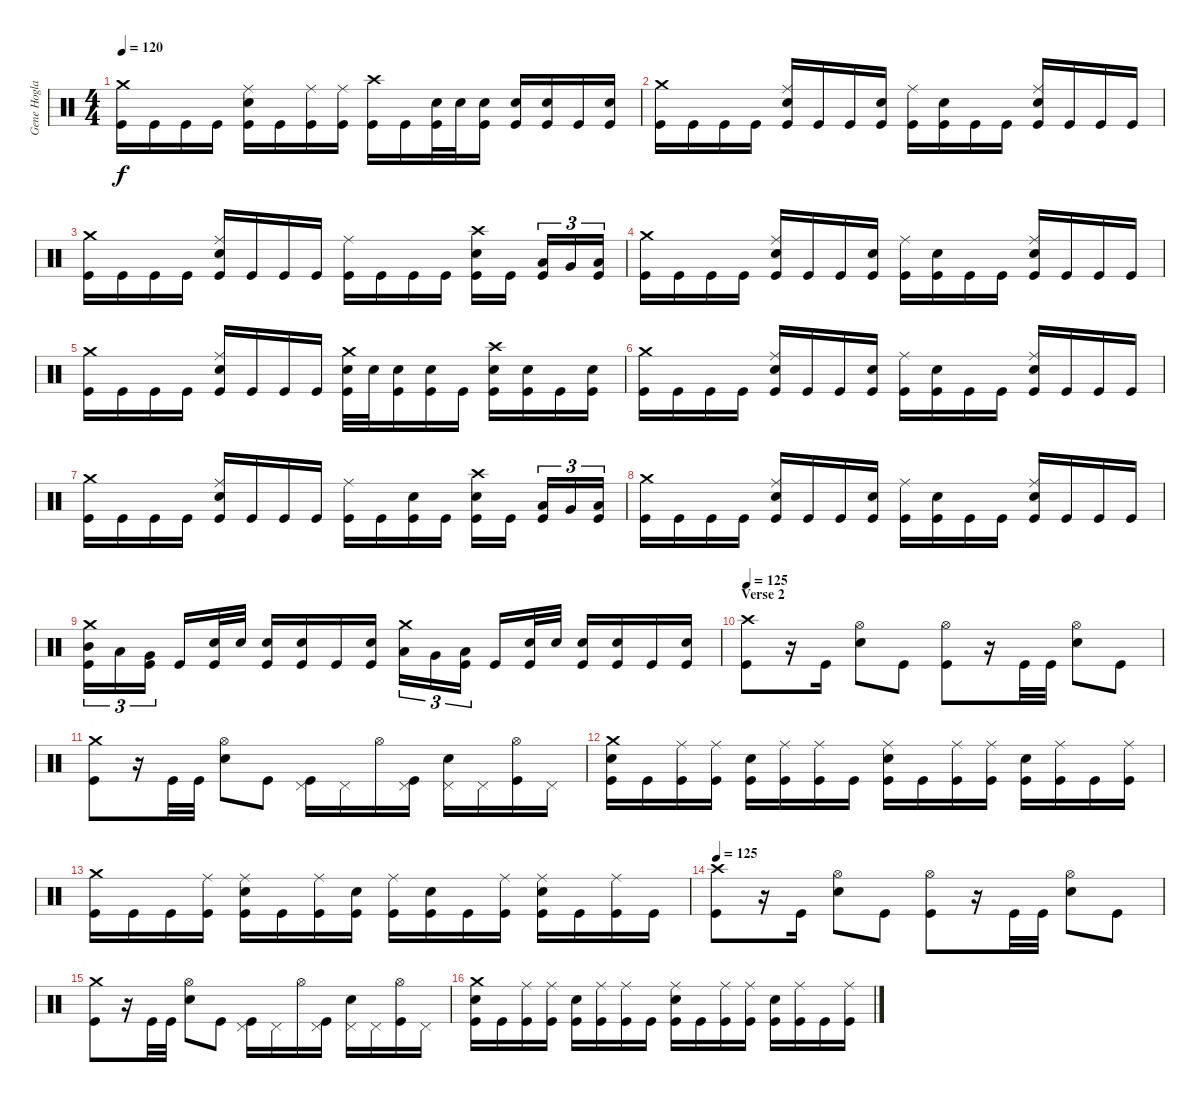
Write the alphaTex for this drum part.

\track ("Gene Hoglan" "Gene Hogla") {instrument percussion}
\staff {score}
\articulation defaults
\ts (4 4)
\tempo 120
\clef neutral
\ks c
("Crash medium (hit)" "Kick (hit)").16{dy f} "Kick (hit)".16 "Kick (hit)".16 "Kick (hit)".16 ("Ride (middle)" "Electric Snare (hit)" "Kick (hit)").16 "Kick (hit)".16 ("Ride (middle)" "Kick (hit)").16 ("Ride (middle)" "Kick (hit)").16 ("Crash high (hit)" "Kick (hit)").16 "Kick (hit)".16 ("Electric Snare (hit)" "Kick (hit)").32 "Electric Snare (hit)".32 ("Electric Snare (hit)" "Kick (hit)").16 ("Electric Snare (hit)" "Kick (hit)").16 ("Electric Snare (hit)" "Kick (hit)").16 "Kick (hit)".16 ("Electric Snare (hit)" "Kick (hit)").16 |
("Crash medium (hit)" "Kick (hit)").16 "Kick (hit)".16 "Kick (hit)".16 "Kick (hit)".16 ("Ride (middle)" "Electric Snare (hit)" "Kick (hit)").16 "Kick (hit)".16 "Kick (hit)".16 ("Electric Snare (hit)" "Kick (hit)").16 ("Ride (middle)" "Kick (hit)").16 ("Electric Snare (hit)" "Kick (hit)").16 "Kick (hit)".16 "Kick (hit)".16 ("Ride (middle)" "Electric Snare (hit)" "Kick (hit)").16 "Kick (hit)".16 "Kick (hit)".16 "Kick (hit)".16 |
("Crash medium (hit)" "Kick (hit)").16 "Kick (hit)".16 "Kick (hit)".16 "Kick (hit)".16 ("Ride (middle)" "Electric Snare (hit)" "Kick (hit)").16 "Kick (hit)".16 "Kick (hit)".16 "Kick (hit)".16 ("Ride (middle)" "Kick (hit)").16 "Kick (hit)".16 "Kick (hit)".16 "Kick (hit)".16 ("Crash high (hit)" "Electric Snare (hit)" "Kick (hit)").16 "Kick (hit)".16 ("Low Tom (hit)" "Kick (hit)").16{tu (3 2)} "Very Low Tom (hit)".16{tu (3 2)} ("Low Floor Tom (hit)" "Kick (hit)").16{tu (3 2)} |
("Crash medium (hit)" "Kick (hit)").16 "Kick (hit)".16 "Kick (hit)".16 "Kick (hit)".16 ("Ride (middle)" "Electric Snare (hit)" "Kick (hit)").16 "Kick (hit)".16 "Kick (hit)".16 ("Electric Snare (hit)" "Kick (hit)").16 ("Ride (middle)" "Kick (hit)").16 ("Electric Snare (hit)" "Kick (hit)").16 "Kick (hit)".16 "Kick (hit)".16 ("Ride (middle)" "Electric Snare (hit)" "Kick (hit)").16 "Kick (hit)".16 "Kick (hit)".16 "Kick (hit)".16 |
("Crash medium (hit)" "Kick (hit)").16 "Kick (hit)".16 "Kick (hit)".16 "Kick (hit)".16 ("Ride (middle)" "Electric Snare (hit)" "Kick (hit)").16 "Kick (hit)".16 "Kick (hit)".16 "Kick (hit)".16 ("Crash medium (hit)" "Electric Snare (hit)" "Kick (hit)").32 "Electric Snare (hit)".32 ("Electric Snare (hit)" "Kick (hit)").16 ("Electric Snare (hit)" "Kick (hit)").16 "Kick (hit)".16 ("Crash high (hit)" "Electric Snare (hit)" "Kick (hit)").16 ("Electric Snare (hit)" "Kick (hit)").16 "Kick (hit)".16 ("Electric Snare (hit)" "Kick (hit)").16 |
("Crash medium (hit)" "Kick (hit)").16 "Kick (hit)".16 "Kick (hit)".16 "Kick (hit)".16 ("Ride (middle)" "Electric Snare (hit)" "Kick (hit)").16 "Kick (hit)".16 "Kick (hit)".16 ("Electric Snare (hit)" "Kick (hit)").16 ("Ride (middle)" "Kick (hit)").16 ("Electric Snare (hit)" "Kick (hit)").16 "Kick (hit)".16 "Kick (hit)".16 ("Ride (middle)" "Electric Snare (hit)" "Kick (hit)").16 "Kick (hit)".16 "Kick (hit)".16 "Kick (hit)".16 |
("Crash medium (hit)" "Kick (hit)").16 "Kick (hit)".16 "Kick (hit)".16 "Kick (hit)".16 ("Ride (middle)" "Electric Snare (hit)" "Kick (hit)").16 "Kick (hit)".16 "Kick (hit)".16 "Kick (hit)".16 ("Ride (middle)" "Kick (hit)").16 "Kick (hit)".16 ("Electric Snare (hit)" "Kick (hit)").16 "Kick (hit)".16 ("Crash high (hit)" "Electric Snare (hit)" "Kick (hit)").16 "Kick (hit)".16 ("Low Tom (hit)" "Kick (hit)").16{tu (3 2)} "Very Low Tom (hit)".16{tu (3 2)} ("Low Floor Tom (hit)" "Kick (hit)").16{tu (3 2)} |
("Crash medium (hit)" "Kick (hit)").16 "Kick (hit)".16 "Kick (hit)".16 "Kick (hit)".16 ("Ride (middle)" "Electric Snare (hit)" "Kick (hit)").16 "Kick (hit)".16 "Kick (hit)".16 ("Electric Snare (hit)" "Kick (hit)").16 ("Ride (middle)" "Kick (hit)").16 ("Electric Snare (hit)" "Kick (hit)").16 "Kick (hit)".16 "Kick (hit)".16 ("Ride (middle)" "Electric Snare (hit)" "Kick (hit)").16 "Kick (hit)".16 "Kick (hit)".16 "Kick (hit)".16 |
("Crash medium (hit)" "Mid Tom (hit)" "Kick (hit)").16{tu (3 2)} "Low Tom (hit)".16{tu (3 2)} ("Very Low Tom (hit)" "Kick (hit)").16{tu (3 2)} "Kick (hit)".16 ("Electric Snare (hit)" "Kick (hit)").32 "Electric Snare (hit)".32 ("Electric Snare (hit)" "Kick (hit)").16 ("Electric Snare (hit)" "Kick (hit)").16 "Kick (hit)".16 ("Electric Snare (hit)" "Kick (hit)").16 ("Crash medium (hit)" "Low Tom (hit)").16{tu (3 2)} "Very Low Tom (hit)".16{tu (3 2)} ("Low Floor Tom (hit)" "Kick (hit)").16{tu (3 2)} "Kick (hit)".16 ("Electric Snare (hit)" "Kick (hit)").32 "Electric Snare (hit)".32 ("Electric Snare (hit)" "Kick (hit)").16 ("Electric Snare (hit)" "Kick (hit)").16 "Kick (hit)".16 ("Electric Snare (hit)" "Kick (hit)").16 |
\section ("" "Verse 2")
\tempo 125
("Crash high (hit)" "Kick (hit)").8 r.16 "Kick (hit)".16 ("Hi-Hat (open)" "Electric Snare (hit)").8 "Kick (hit)".8 ("Hi-Hat (open)" "Kick (hit)").8 r.16 "Kick (hit)".32 "Kick (hit)".32 ("Hi-Hat (open)" "Electric Snare (hit)").8 "Kick (hit)".8 |
("Crash medium (hit)" "Kick (hit)").8 r.16 "Kick (hit)".32 "Kick (hit)".32 ("Hi-Hat (open)" "Electric Snare (hit)").8 "Kick (hit)".8 ("Pedal Hi-Hat (hit)" "Kick (hit)").16 "Pedal Hi-Hat (hit)".16 "Hi-Hat (open)".16 ("Pedal Hi-Hat (hit)" "Kick (hit)").16 ("Pedal Hi-Hat (hit)" "Electric Snare (hit)").16 "Pedal Hi-Hat (hit)".16 ("Hi-Hat (open)" "Kick (hit)").16 "Pedal Hi-Hat (hit)".16 |
("Crash medium (hit)" "Electric Snare (hit)" "Kick (hit)").16 "Kick (hit)".16 ("Ride (middle)" "Kick (hit)").16 ("Ride (middle)" "Kick (hit)").16 ("Electric Snare (hit)" "Kick (hit)").16 ("Ride (middle)" "Kick (hit)").16 ("Ride (middle)" "Kick (hit)").16 "Kick (hit)".16 ("Ride (middle)" "Electric Snare (hit)" "Kick (hit)").16 "Kick (hit)".16 ("Ride (middle)" "Kick (hit)").16 ("Ride (middle)" "Kick (hit)").16 ("Electric Snare (hit)" "Kick (hit)").16 ("Ride (middle)" "Kick (hit)").16 "Kick (hit)".16 ("Ride (middle)" "Kick (hit)").16 |
("Crash medium (hit)" "Kick (hit)").16 "Kick (hit)".16 "Kick (hit)".16 ("Ride (middle)" "Kick (hit)").16 ("Ride (middle)" "Electric Snare (hit)" "Kick (hit)").16 "Kick (hit)".16 ("Ride (middle)" "Kick (hit)").16 ("Electric Snare (hit)" "Kick (hit)").16 ("Ride (middle)" "Kick (hit)").16 ("Electric Snare (hit)" "Kick (hit)").16 "Kick (hit)".16 ("Ride (middle)" "Kick (hit)").16 ("Ride (middle)" "Electric Snare (hit)" "Kick (hit)").16 "Kick (hit)".16 ("Ride (middle)" "Kick (hit)").16 "Kick (hit)".16 |
\tempo 125
("Crash high (hit)" "Kick (hit)").8 r.16 "Kick (hit)".16 ("Hi-Hat (open)" "Electric Snare (hit)").8 "Kick (hit)".8 ("Hi-Hat (open)" "Kick (hit)").8 r.16 "Kick (hit)".32 "Kick (hit)".32 ("Hi-Hat (open)" "Electric Snare (hit)").8 "Kick (hit)".8 |
("Crash medium (hit)" "Kick (hit)").8 r.16 "Kick (hit)".32 "Kick (hit)".32 ("Hi-Hat (open)" "Electric Snare (hit)").8 "Kick (hit)".8 ("Pedal Hi-Hat (hit)" "Kick (hit)").16 "Pedal Hi-Hat (hit)".16 "Hi-Hat (open)".16 ("Pedal Hi-Hat (hit)" "Kick (hit)").16 ("Pedal Hi-Hat (hit)" "Electric Snare (hit)").16 "Pedal Hi-Hat (hit)".16 ("Hi-Hat (open)" "Kick (hit)").16 "Pedal Hi-Hat (hit)".16 |
("Crash medium (hit)" "Electric Snare (hit)" "Kick (hit)").16 "Kick (hit)".16 ("Ride (middle)" "Kick (hit)").16 ("Ride (middle)" "Kick (hit)").16 ("Electric Snare (hit)" "Kick (hit)").16 ("Ride (middle)" "Kick (hit)").16 ("Ride (middle)" "Kick (hit)").16 "Kick (hit)".16 ("Ride (middle)" "Electric Snare (hit)" "Kick (hit)").16 "Kick (hit)".16 ("Ride (middle)" "Kick (hit)").16 ("Ride (middle)" "Kick (hit)").16 ("Electric Snare (hit)" "Kick (hit)").16 ("Ride (middle)" "Kick (hit)").16 "Kick (hit)".16 ("Ride (middle)" "Kick (hit)").16
